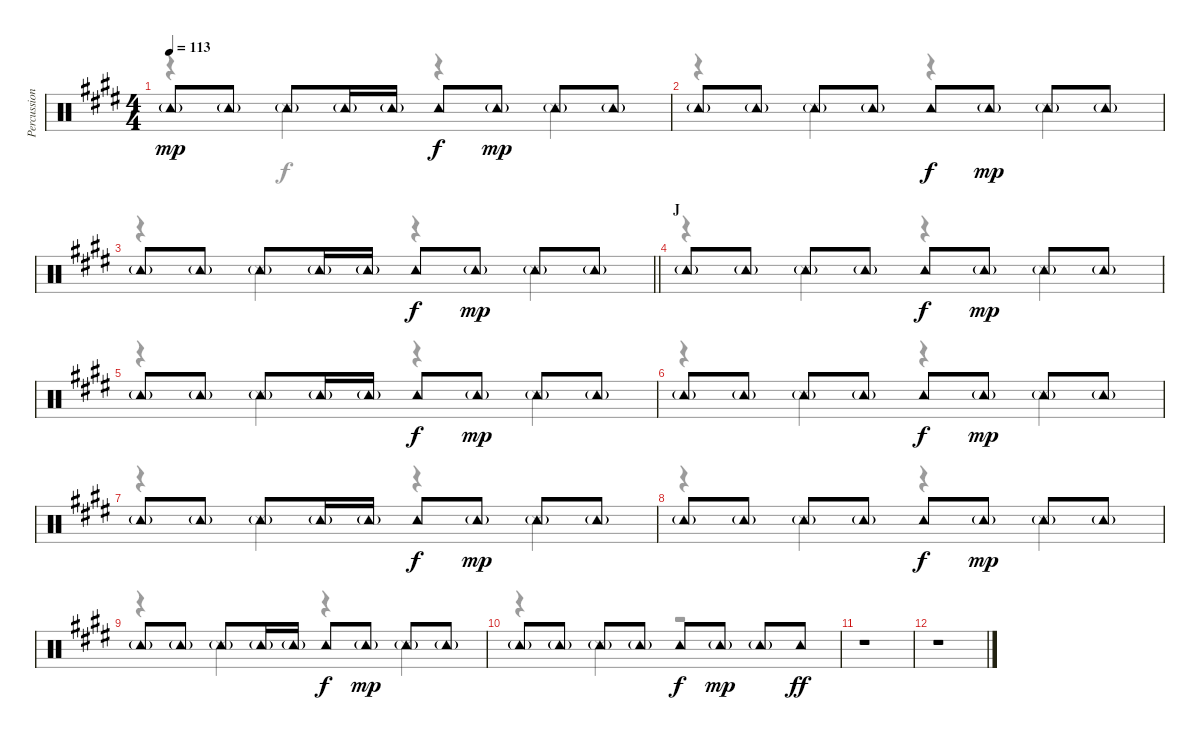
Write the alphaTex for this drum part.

\track ("Percussion" "Percussion") {instrument percussion}
\staff {score}
\articulation defaults
\voice
\ts (4 4)
\tempo 113
\clef neutral
\ks e "Tambourine (hit)"{g}.8{dy mp} "Tambourine (hit)"{g}.8 "Tambourine (hit)"{g}.8 "Tambourine (hit)"{g}.16 "Tambourine (hit)"{g}.16 "Tambourine (hit)".8{dy f} "Tambourine (hit)"{g}.8{dy mp} "Tambourine (hit)"{g}.8 "Tambourine (hit)"{g}.8
|
"Tambourine (hit)"{g}.8 "Tambourine (hit)"{g}.8 "Tambourine (hit)"{g}.8 "Tambourine (hit)"{g}.8 "Tambourine (hit)".8{dy f} "Tambourine (hit)"{g}.8{dy mp} "Tambourine (hit)"{g}.8 "Tambourine (hit)"{g}.8 |
\barLineRight lightlight "Tambourine (hit)"{g}.8 "Tambourine (hit)"{g}.8 "Tambourine (hit)"{g}.8 "Tambourine (hit)"{g}.16 "Tambourine (hit)"{g}.16 "Tambourine (hit)".8{dy f} "Tambourine (hit)"{g}.8{dy mp} "Tambourine (hit)"{g}.8 "Tambourine (hit)"{g}.8
|
\section ("" "J")
"Tambourine (hit)"{g}.8 "Tambourine (hit)"{g}.8 "Tambourine (hit)"{g}.8 "Tambourine (hit)"{g}.8 "Tambourine (hit)".8{dy f} "Tambourine (hit)"{g}.8{dy mp} "Tambourine (hit)"{g}.8 "Tambourine (hit)"{g}.8 |
"Tambourine (hit)"{g}.8 "Tambourine (hit)"{g}.8 "Tambourine (hit)"{g}.8 "Tambourine (hit)"{g}.16 "Tambourine (hit)"{g}.16 "Tambourine (hit)".8{dy f} "Tambourine (hit)"{g}.8{dy mp} "Tambourine (hit)"{g}.8 "Tambourine (hit)"{g}.8 |
"Tambourine (hit)"{g}.8 "Tambourine (hit)"{g}.8 "Tambourine (hit)"{g}.8 "Tambourine (hit)"{g}.8 "Tambourine (hit)".8{dy f} "Tambourine (hit)"{g}.8{dy mp} "Tambourine (hit)"{g}.8 "Tambourine (hit)"{g}.8 |
"Tambourine (hit)"{g}.8 "Tambourine (hit)"{g}.8 "Tambourine (hit)"{g}.8 "Tambourine (hit)"{g}.16 "Tambourine (hit)"{g}.16 "Tambourine (hit)".8{dy f} "Tambourine (hit)"{g}.8{dy mp} "Tambourine (hit)"{g}.8 "Tambourine (hit)"{g}.8 |
"Tambourine (hit)"{g}.8 "Tambourine (hit)"{g}.8 "Tambourine (hit)"{g}.8 "Tambourine (hit)"{g}.8 "Tambourine (hit)".8{dy f} "Tambourine (hit)"{g}.8{dy mp} "Tambourine (hit)"{g}.8 "Tambourine (hit)"{g}.8 |
"Tambourine (hit)"{g}.8 "Tambourine (hit)"{g}.8 "Tambourine (hit)"{g}.8 "Tambourine (hit)"{g}.16 "Tambourine (hit)"{g}.16 "Tambourine (hit)".8{dy f} "Tambourine (hit)"{g}.8{dy mp} "Tambourine (hit)"{g}.8 "Tambourine (hit)"{g}.8 |
"Tambourine (hit)"{g}.8 "Tambourine (hit)"{g}.8 "Tambourine (hit)"{g}.8 "Tambourine (hit)"{g}.8 "Tambourine (hit)".8{dy f} "Tambourine (hit)"{g}.8{dy mp} "Tambourine (hit)"{g}.8 "Tambourine (hit)".8{dy ff} |
r.1 |
r.1
\voice
\clef neutral
\ottava regular
\simile none
\ks e
r.4{dy f} "Snare (side stick) 3".4 r.4 "Snare (side stick) 3".4 |
r.4 "Snare (side stick) 3".4 r.4 "Snare (side stick) 3".4 |
\barLineRight lightlight
r.4 "Snare (side stick) 3".4 r.4 "Snare (side stick) 3".4 |
r.4 "Snare (side stick) 3".4 r.4 "Snare (side stick) 3".4 |
r.4 "Snare (side stick) 3".4 r.4 "Snare (side stick) 3".4 |
r.4 "Snare (side stick) 3".4 r.4 "Snare (side stick) 3".4 |
r.4 "Snare (side stick) 3".4 r.4 "Snare (side stick) 3".4 |
r.4 "Snare (side stick) 3".4 r.4 "Snare (side stick) 3".4 |
r.4 "Snare (side stick) 3".4 r.4 "Snare (side stick) 3".4 |
r.4 "Snare (side stick) 3".4 r.2 |
r.1 |
r.1
